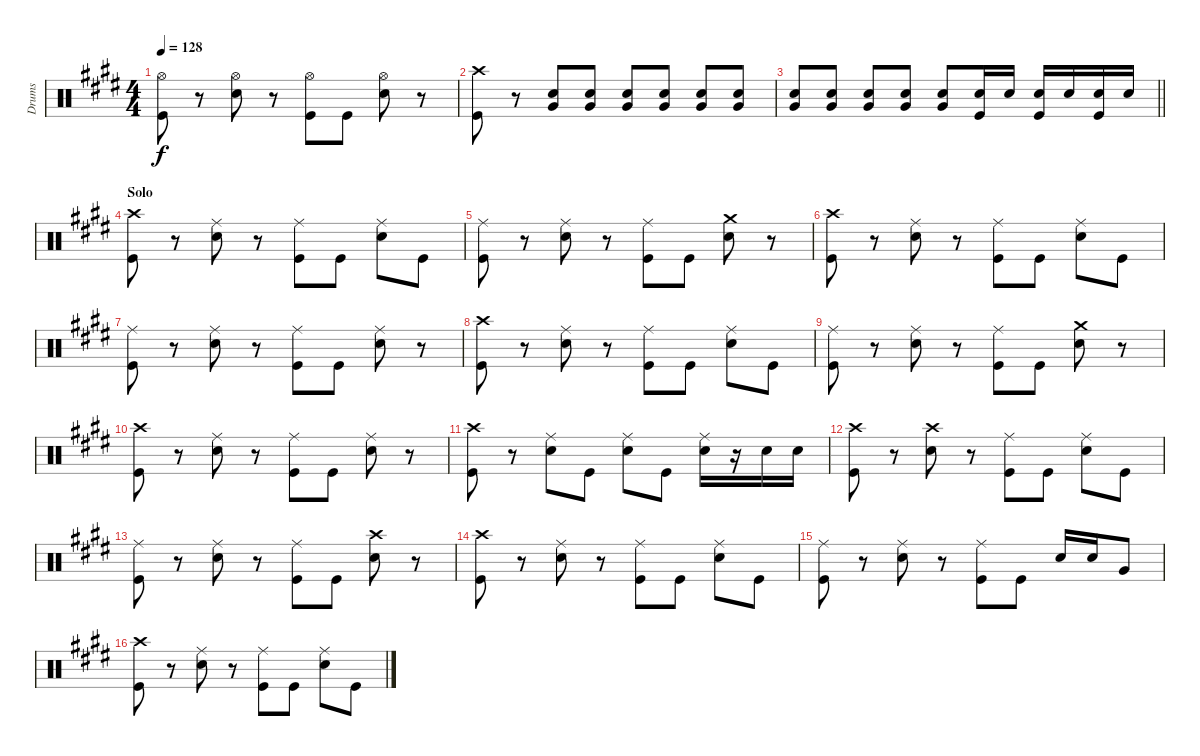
\track ("Drums" "Drums") {instrument percussion}
\staff {score}
\articulation defaults
\ts (4 4)
\tempo 128
\clef neutral
\ks e
("Hi-Hat (open)" "Kick (hit)").8{dy f} r.8 ("Hi-Hat (open)" "Snare (hit) 2").8 r.8 ("Hi-Hat (open)" "Kick (hit)").8 "Kick (hit)".8 ("Hi-Hat (open)" "Snare (hit) 2").8 r.8 |
("Crash high (hit)" "Kick (hit)").8 r.8 ("Very Low Tom (hit)" "Snare (hit) 2").8 ("Very Low Tom (hit)" "Snare (hit) 2").8 ("Very Low Tom (hit)" "Snare (hit) 2").8 ("Very Low Tom (hit)" "Snare (hit) 2").8 ("Very Low Tom (hit)" "Snare (hit) 2").8 ("Very Low Tom (hit)" "Snare (hit) 2").8 |
\barLineRight lightlight
("Very Low Tom (hit)" "Snare (hit) 2").8 ("Very Low Tom (hit)" "Snare (hit) 2").8 ("Very Low Tom (hit)" "Snare (hit) 2").8 ("Very Low Tom (hit)" "Snare (hit) 2").8 ("Very Low Tom (hit)" "Snare (hit) 2").8 ("Snare (hit) 2" "Kick (hit)").16 "Snare (hit) 2".16 ("Snare (hit) 2" "Kick (hit)").16 "Snare (hit) 2".16 ("Snare (hit) 2" "Kick (hit)").16 "Snare (hit) 2".16 |
\section ("" "Solo")
("Crash high (hit)" "Kick (hit)").8 r.8 ("Ride (middle)" "Snare (hit) 2").8 r.8 ("Ride (middle)" "Kick (hit)").8 "Kick (hit)".8 ("Ride (middle)" "Snare (hit) 2").8 "Kick (hit)".8 |
("Ride (middle)" "Kick (hit)").8 r.8 ("Ride (middle)" "Snare (hit) 2").8 r.8 ("Ride (middle)" "Kick (hit)").8 "Kick (hit)".8 ("Crash medium (hit)" "Snare (hit) 2").8 r.8 |
("Crash high (hit)" "Kick (hit)").8 r.8 ("Ride (middle)" "Snare (hit) 2").8 r.8 ("Ride (middle)" "Kick (hit)").8 "Kick (hit)".8 ("Ride (middle)" "Snare (hit) 2").8 "Kick (hit)".8 |
("Ride (middle)" "Kick (hit)").8 r.8 ("Ride (middle)" "Snare (hit) 2").8 r.8 ("Ride (middle)" "Kick (hit)").8 "Kick (hit)".8 ("Ride (middle)" "Snare (hit) 2").8 r.8 |
("Crash high (hit)" "Kick (hit)").8 r.8 ("Ride (middle)" "Snare (hit) 2").8 r.8 ("Ride (middle)" "Kick (hit)").8 "Kick (hit)".8 ("Ride (middle)" "Snare (hit) 2").8 "Kick (hit)".8 |
("Ride (middle)" "Kick (hit)").8 r.8 ("Ride (middle)" "Snare (hit) 2").8 r.8 ("Ride (middle)" "Kick (hit)").8 "Kick (hit)".8 ("Crash medium (hit)" "Snare (hit) 2").8 r.8 |
("Crash high (hit)" "Kick (hit)").8 r.8 ("Ride (middle)" "Snare (hit) 2").8 r.8 ("Ride (middle)" "Kick (hit)").8 "Kick (hit)".8 ("Ride (middle)" "Snare (hit) 2").8 r.8 |
("Crash high (hit)" "Kick (hit)").8 r.8 ("Ride (middle)" "Snare (hit) 2").8 "Kick (hit)".8 ("Ride (middle)" "Snare (hit) 2").8 "Kick (hit)".8 ("Ride (middle)" "Snare (hit) 2").16 r.16 "Snare (hit) 2".16 "Snare (hit) 2".16 |
("Crash high (hit)" "Kick (hit)").8 r.8 ("Crash high (hit)" "Snare (hit) 2").8 r.8 ("Ride (middle)" "Kick (hit)").8 "Kick (hit)".8 ("Ride (middle)" "Snare (hit) 2").8 "Kick (hit)".8 |
("Ride (middle)" "Kick (hit)").8 r.8 ("Ride (middle)" "Snare (hit) 2").8 r.8 ("Ride (middle)" "Kick (hit)").8 "Kick (hit)".8 ("Crash high (hit)" "Snare (hit) 2").8 r.8 |
("Crash high (hit)" "Kick (hit)").8 r.8 ("Ride (middle)" "Snare (hit) 2").8 r.8 ("Ride (middle)" "Kick (hit)").8 "Kick (hit)".8 ("Ride (middle)" "Snare (hit) 2").8 "Kick (hit)".8 |
("Ride (middle)" "Kick (hit)").8 r.8 ("Ride (middle)" "Snare (hit) 2").8 r.8 ("Ride (middle)" "Kick (hit)").8 "Kick (hit)".8 "Snare (hit) 2".16 "Snare (hit) 2".16 "Very Low Tom (hit)".8 |
("Crash high (hit)" "Kick (hit)").8 r.8 ("Ride (middle)" "Snare (hit) 2").8 r.8 ("Ride (middle)" "Kick (hit)").8 "Kick (hit)".8 ("Ride (middle)" "Snare (hit) 2").8 "Kick (hit)".8
